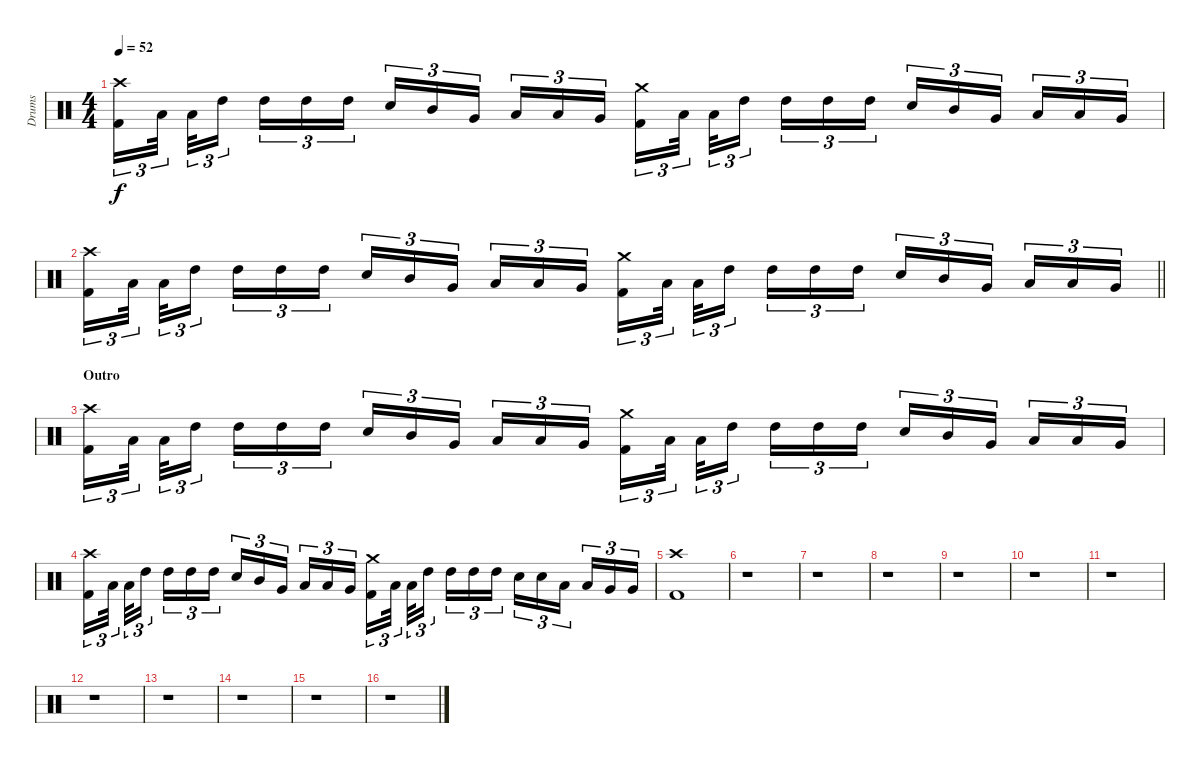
\track ("Drums" "Drums") {instrument percussion}
\staff {score}
\articulation defaults
\ts (4 4)
\tempo 52
\clef neutral
\ks c
("Crash high (hit)" "Kick (hit) 2").16{tu (3 2) dy f} "Low Tom (hit)".32{tu (3 2) beam splitsecondary} "Low Tom (hit)".32{tu (3 2)} "High Tom (hit)".16{tu (3 2) beam splitsecondary} "High Tom (hit)".16{tu (3 2)} "High Tom (hit)".16{tu (3 2)} "High Tom (hit)".16{tu (3 2)} "Electric Snare (hit)".16{tu (3 2)} "Mid Tom (hit)".16{tu (3 2)} "Very Low Tom (hit)".16{tu (3 2) beam splitsecondary} "Low Tom (hit)".16{tu (3 2)} "Low Floor Tom (hit)".16{tu (3 2)} "Very Low Tom (hit)".16{tu (3 2)} ("Crash medium (hit)" "Kick (hit) 2").16{tu (3 2)} "Low Tom (hit)".32{tu (3 2) beam splitsecondary} "Low Tom (hit)".32{tu (3 2)} "High Tom (hit)".16{tu (3 2) beam splitsecondary} "High Tom (hit)".16{tu (3 2)} "High Tom (hit)".16{tu (3 2)} "High Tom (hit)".16{tu (3 2)} "Electric Snare (hit)".16{tu (3 2)} "Mid Tom (hit)".16{tu (3 2)} "Very Low Tom (hit)".16{tu (3 2) beam splitsecondary} "Low Tom (hit)".16{tu (3 2)} "Low Floor Tom (hit)".16{tu (3 2)} "Very Low Tom (hit)".16{tu (3 2)} |
\barLineRight lightlight
("Crash high (hit)" "Kick (hit) 2").16{tu (3 2)} "Low Tom (hit)".32{tu (3 2) beam splitsecondary} "Low Tom (hit)".32{tu (3 2)} "High Tom (hit)".16{tu (3 2) beam splitsecondary} "High Tom (hit)".16{tu (3 2)} "High Tom (hit)".16{tu (3 2)} "High Tom (hit)".16{tu (3 2)} "Electric Snare (hit)".16{tu (3 2)} "Mid Tom (hit)".16{tu (3 2)} "Very Low Tom (hit)".16{tu (3 2) beam splitsecondary} "Low Tom (hit)".16{tu (3 2)} "Low Floor Tom (hit)".16{tu (3 2)} "Very Low Tom (hit)".16{tu (3 2)} ("Crash medium (hit)" "Kick (hit) 2").16{tu (3 2)} "Low Tom (hit)".32{tu (3 2) beam splitsecondary} "Low Tom (hit)".32{tu (3 2)} "High Tom (hit)".16{tu (3 2) beam splitsecondary} "High Tom (hit)".16{tu (3 2)} "High Tom (hit)".16{tu (3 2)} "High Tom (hit)".16{tu (3 2)} "Electric Snare (hit)".16{tu (3 2)} "Mid Tom (hit)".16{tu (3 2)} "Very Low Tom (hit)".16{tu (3 2) beam splitsecondary} "Low Tom (hit)".16{tu (3 2)} "Low Floor Tom (hit)".16{tu (3 2)} "Very Low Tom (hit)".16{tu (3 2)} |
\section ("" "Outro")
("Crash high (hit)" "Kick (hit) 2").16{tu (3 2)} "Low Tom (hit)".32{tu (3 2) beam splitsecondary} "Low Tom (hit)".32{tu (3 2)} "High Tom (hit)".16{tu (3 2) beam splitsecondary} "High Tom (hit)".16{tu (3 2)} "High Tom (hit)".16{tu (3 2)} "High Tom (hit)".16{tu (3 2)} "Electric Snare (hit)".16{tu (3 2)} "Mid Tom (hit)".16{tu (3 2)} "Very Low Tom (hit)".16{tu (3 2) beam splitsecondary} "Low Tom (hit)".16{tu (3 2)} "Low Floor Tom (hit)".16{tu (3 2)} "Very Low Tom (hit)".16{tu (3 2)} ("Crash medium (hit)" "Kick (hit) 2").16{tu (3 2)} "Low Tom (hit)".32{tu (3 2) beam splitsecondary} "Low Tom (hit)".32{tu (3 2)} "High Tom (hit)".16{tu (3 2) beam splitsecondary} "High Tom (hit)".16{tu (3 2)} "High Tom (hit)".16{tu (3 2)} "High Tom (hit)".16{tu (3 2)} "Electric Snare (hit)".16{tu (3 2)} "Mid Tom (hit)".16{tu (3 2)} "Very Low Tom (hit)".16{tu (3 2) beam splitsecondary} "Low Tom (hit)".16{tu (3 2)} "Low Floor Tom (hit)".16{tu (3 2)} "Very Low Tom (hit)".16{tu (3 2)} |
("Crash high (hit)" "Kick (hit) 2").16{tu (3 2)} "Low Tom (hit)".32{tu (3 2) beam splitsecondary} "Low Tom (hit)".32{tu (3 2)} "High Tom (hit)".16{tu (3 2) beam splitsecondary} "High Tom (hit)".16{tu (3 2)} "High Tom (hit)".16{tu (3 2)} "High Tom (hit)".16{tu (3 2)} "Electric Snare (hit)".16{tu (3 2)} "Mid Tom (hit)".16{tu (3 2)} "Very Low Tom (hit)".16{tu (3 2) beam splitsecondary} "Low Tom (hit)".16{tu (3 2)} "Low Floor Tom (hit)".16{tu (3 2)} "Very Low Tom (hit)".16{tu (3 2)} ("Crash medium (hit)" "Kick (hit) 2").16{tu (3 2)} "Low Tom (hit)".32{tu (3 2) beam splitsecondary} "Low Tom (hit)".32{tu (3 2)} "High Tom (hit)".16{tu (3 2) beam splitsecondary} "High Tom (hit)".16{tu (3 2)} "High Tom (hit)".16{tu (3 2)} "High Tom (hit)".16{tu (3 2)} "Electric Snare (hit)".16{tu (3 2)} "Electric Snare (hit)".16{tu (3 2)} "Low Tom (hit)".16{tu (3 2) beam splitsecondary} "Low Tom (hit)".16{tu (3 2)} "Very Low Tom (hit)".16{tu (3 2)} "Very Low Tom (hit)".16{tu (3 2)} |
("Crash high (hit)" "Kick (hit) 2").1 |
r.1 |
r.1 |
r.1 |
r.1 |
r.1 |
r.1 |
r.1 |
r.1 |
r.1 |
r.1 |
r.1
